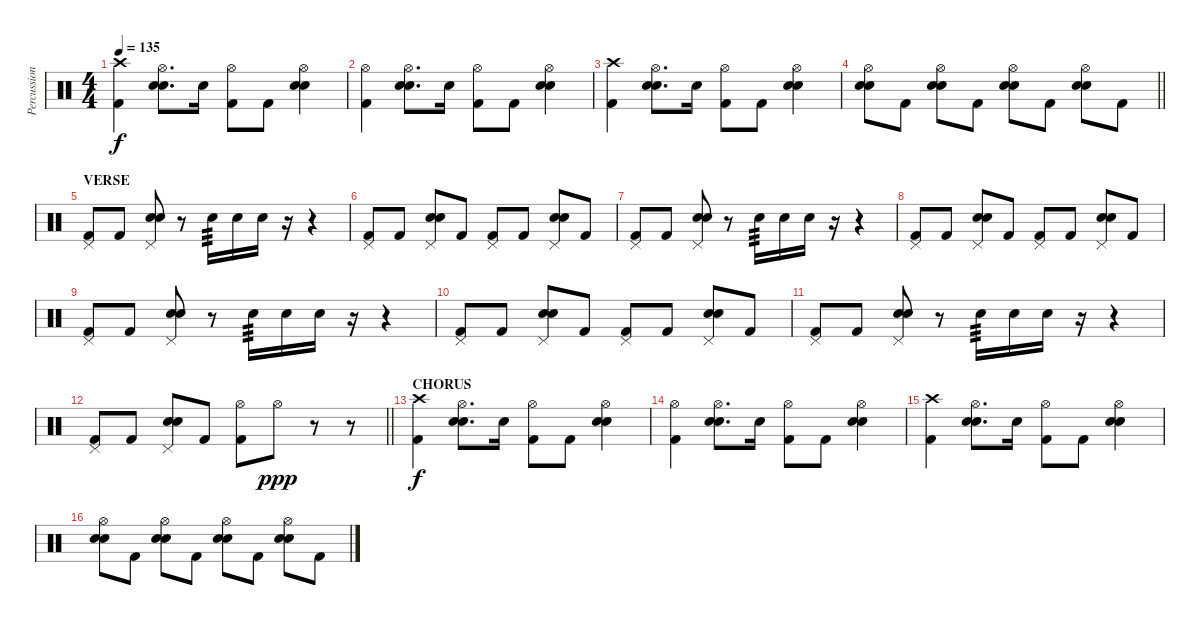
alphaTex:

\track ("Percussion" "Percussion") {instrument percussion}
\staff {score}
\articulation defaults
\ts (4 4)
\tempo 135
\clef neutral
\ks c
("Crash high (hit)" "Kick (hit) 2").4{dy f} ("Hi-Hat (open)" "Snare (hit) 2" "Electric Snare (hit)").8{d} "Electric Snare (hit)".16 ("Hi-Hat (open)" "Kick (hit) 2").8 "Kick (hit) 2".8 ("Hi-Hat (open)" "Snare (hit) 2" "Electric Snare (hit)").4 |
("Hi-Hat (open)" "Kick (hit) 2").4 ("Hi-Hat (open)" "Snare (hit) 2" "Electric Snare (hit)").8{d} "Electric Snare (hit)".16 ("Hi-Hat (open)" "Kick (hit) 2").8 "Kick (hit) 2".8 ("Hi-Hat (open)" "Snare (hit) 2" "Electric Snare (hit)").4 |
("Crash high (hit)" "Kick (hit) 2").4 ("Hi-Hat (open)" "Snare (hit) 2" "Electric Snare (hit)").8{d} "Electric Snare (hit)".16 ("Hi-Hat (open)" "Kick (hit) 2").8 "Kick (hit) 2".8 ("Hi-Hat (open)" "Snare (hit) 2" "Electric Snare (hit)").4 |
\barLineRight lightlight
("Hi-Hat (open)" "Snare (hit) 2" "Electric Snare (hit)").8 "Kick (hit) 2".8 ("Hi-Hat (open)" "Snare (hit) 2" "Electric Snare (hit)").8 "Kick (hit) 2".8 ("Hi-Hat (open)" "Snare (hit) 2" "Electric Snare (hit)").8 "Kick (hit) 2".8 ("Hi-Hat (open)" "Snare (hit) 2" "Electric Snare (hit)").8 "Kick (hit) 2".8 |
\section ("" "VERSE")
("Pedal Hi-Hat (hit)" "Kick (hit) 2").8 "Kick (hit) 2".8 ("Pedal Hi-Hat (hit)" "Snare (hit) 2" "Electric Snare (hit)").8 r.8 "Snare (hit) 2".16{tp 3} "Snare (hit) 2".16 "Snare (hit) 2".16 r.16 r.4 |
("Pedal Hi-Hat (hit)" "Kick (hit) 2").8 "Kick (hit) 2".8 ("Pedal Hi-Hat (hit)" "Snare (hit) 2" "Electric Snare (hit)").8 "Kick (hit) 2".8 ("Pedal Hi-Hat (hit)" "Kick (hit) 2").8 "Kick (hit) 2".8 ("Pedal Hi-Hat (hit)" "Snare (hit) 2" "Electric Snare (hit)").8 "Kick (hit) 2".8 |
("Pedal Hi-Hat (hit)" "Kick (hit) 2").8 "Kick (hit) 2".8 ("Pedal Hi-Hat (hit)" "Snare (hit) 2" "Electric Snare (hit)").8 r.8 "Snare (hit) 2".16{tp 3} "Snare (hit) 2".16 "Snare (hit) 2".16 r.16 r.4 |
("Pedal Hi-Hat (hit)" "Kick (hit) 2").8 "Kick (hit) 2".8 ("Pedal Hi-Hat (hit)" "Snare (hit) 2" "Electric Snare (hit)").8 "Kick (hit) 2".8 ("Pedal Hi-Hat (hit)" "Kick (hit) 2").8 "Kick (hit) 2".8 ("Pedal Hi-Hat (hit)" "Snare (hit) 2" "Electric Snare (hit)").8 "Kick (hit) 2".8 |
("Pedal Hi-Hat (hit)" "Kick (hit) 2").8 "Kick (hit) 2".8 ("Pedal Hi-Hat (hit)" "Snare (hit) 2" "Electric Snare (hit)").8 r.8 "Snare (hit) 2".16{tp 3} "Snare (hit) 2".16 "Snare (hit) 2".16 r.16 r.4 |
("Pedal Hi-Hat (hit)" "Kick (hit) 2").8 "Kick (hit) 2".8 ("Pedal Hi-Hat (hit)" "Snare (hit) 2" "Electric Snare (hit)").8 "Kick (hit) 2".8 ("Pedal Hi-Hat (hit)" "Kick (hit) 2").8 "Kick (hit) 2".8 ("Pedal Hi-Hat (hit)" "Snare (hit) 2" "Electric Snare (hit)").8 "Kick (hit) 2".8 |
("Pedal Hi-Hat (hit)" "Kick (hit) 2").8 "Kick (hit) 2".8 ("Pedal Hi-Hat (hit)" "Snare (hit) 2" "Electric Snare (hit)").8 r.8 "Snare (hit) 2".16{tp 3} "Snare (hit) 2".16 "Snare (hit) 2".16 r.16 r.4 |
\barLineRight lightlight
("Pedal Hi-Hat (hit)" "Kick (hit) 2").8 "Kick (hit) 2".8 ("Pedal Hi-Hat (hit)" "Snare (hit) 2" "Electric Snare (hit)").8 "Kick (hit) 2".8 ("Hi-Hat (open)" "Kick (hit) 2").8 "Hi-Hat (open)".8{dy ppp} r.8 r.8 |
\section ("" "CHORUS")
("Crash high (hit)" "Kick (hit) 2").4{dy f} ("Hi-Hat (open)" "Snare (hit) 2" "Electric Snare (hit)").8{d} "Electric Snare (hit)".16 ("Hi-Hat (open)" "Kick (hit) 2").8 "Kick (hit) 2".8 ("Hi-Hat (open)" "Snare (hit) 2" "Electric Snare (hit)").4 |
("Hi-Hat (open)" "Kick (hit) 2").4 ("Hi-Hat (open)" "Snare (hit) 2" "Electric Snare (hit)").8{d} "Electric Snare (hit)".16 ("Hi-Hat (open)" "Kick (hit) 2").8 "Kick (hit) 2".8 ("Hi-Hat (open)" "Snare (hit) 2" "Electric Snare (hit)").4 |
("Crash high (hit)" "Kick (hit) 2").4 ("Hi-Hat (open)" "Snare (hit) 2" "Electric Snare (hit)").8{d} "Electric Snare (hit)".16 ("Hi-Hat (open)" "Kick (hit) 2").8 "Kick (hit) 2".8 ("Hi-Hat (open)" "Snare (hit) 2" "Electric Snare (hit)").4 |
("Hi-Hat (open)" "Snare (hit) 2" "Electric Snare (hit)").8 "Kick (hit) 2".8 ("Hi-Hat (open)" "Snare (hit) 2" "Electric Snare (hit)").8 "Kick (hit) 2".8 ("Hi-Hat (open)" "Snare (hit) 2" "Electric Snare (hit)").8 "Kick (hit) 2".8 ("Hi-Hat (open)" "Snare (hit) 2" "Electric Snare (hit)").8 "Kick (hit) 2".8
